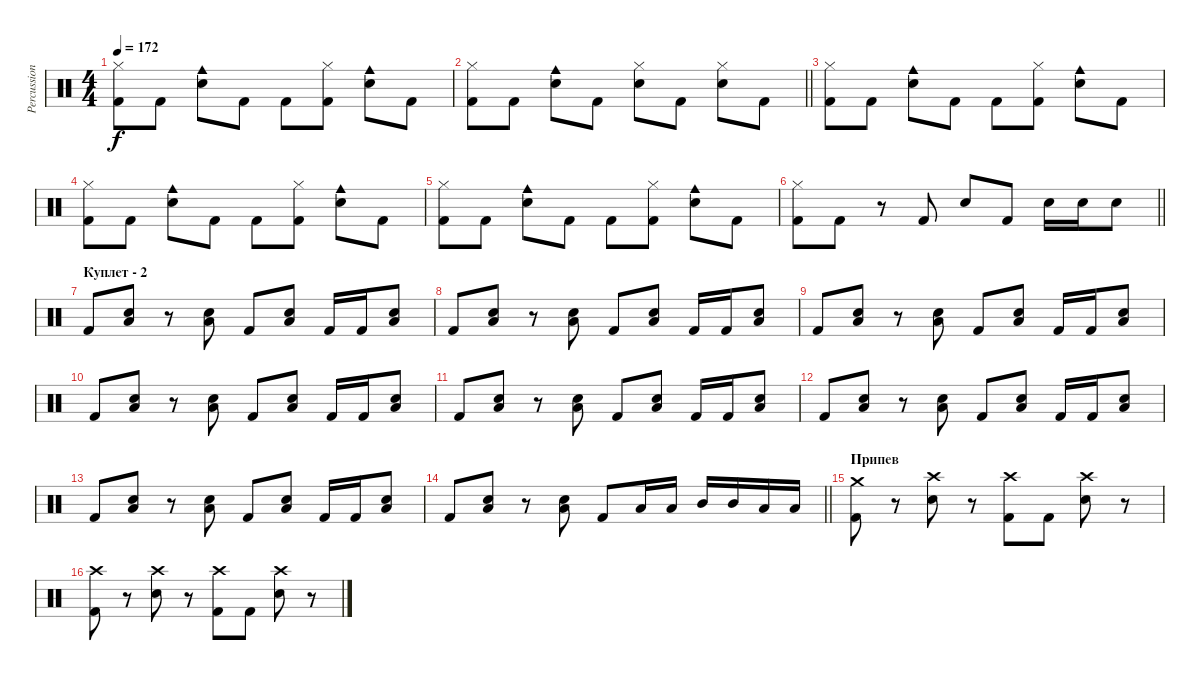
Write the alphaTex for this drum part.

\track ("Percussion" "Percussion") {instrument percussion}
\staff {score}
\articulation defaults
\ts (4 4)
\tempo 172
\clef neutral
\ks c
("Hi-Hat (closed)" "Kick (hit) 2").8{dy f} "Kick (hit) 2".8 ("Cowbell medium (hit)" "Snare (hit) 2").8 "Kick (hit) 2".8 "Kick (hit) 2".8 ("Hi-Hat (closed)" "Kick (hit) 2").8 ("Cowbell medium (hit)" "Snare (hit) 2").8 "Kick (hit) 2".8 |
\barLineRight lightlight
("Hi-Hat (closed)" "Kick (hit) 2").8 "Kick (hit) 2".8 ("Cowbell medium (hit)" "Snare (hit) 2").8 "Kick (hit) 2".8 ("Hi-Hat (closed)" "Snare (hit) 2").8 "Kick (hit) 2".8 ("Hi-Hat (closed)" "Snare (hit) 2").8 "Kick (hit) 2".8 |
("Hi-Hat (closed)" "Kick (hit) 2").8 "Kick (hit) 2".8 ("Cowbell medium (hit)" "Snare (hit) 2").8 "Kick (hit) 2".8 "Kick (hit) 2".8 ("Hi-Hat (closed)" "Kick (hit) 2").8 ("Cowbell medium (hit)" "Snare (hit) 2").8 "Kick (hit) 2".8 |
("Hi-Hat (closed)" "Kick (hit) 2").8 "Kick (hit) 2".8 ("Cowbell medium (hit)" "Snare (hit) 2").8 "Kick (hit) 2".8 "Kick (hit) 2".8 ("Hi-Hat (closed)" "Kick (hit) 2").8 ("Cowbell medium (hit)" "Snare (hit) 2").8 "Kick (hit) 2".8 |
("Hi-Hat (closed)" "Kick (hit) 2").8 "Kick (hit) 2".8 ("Cowbell medium (hit)" "Snare (hit) 2").8 "Kick (hit) 2".8 "Kick (hit) 2".8 ("Hi-Hat (closed)" "Kick (hit) 2").8 ("Cowbell medium (hit)" "Snare (hit) 2").8 "Kick (hit) 2".8 |
\barLineRight lightlight
("Hi-Hat (closed)" "Kick (hit) 2").8 "Kick (hit) 2".8 r.8 "Kick (hit) 2".8 "Snare (hit) 2".8 "Kick (hit) 2".8 "Snare (hit) 2".16 "Snare (hit) 2".16 "Snare (hit) 2".8 |
\section ("" "Куплет - 2")
"Kick (hit) 2".8 ("Low Floor Tom (hit)" "Snare (hit) 2").8 r.8 ("Low Tom (hit)" "Snare (hit) 2").8 "Kick (hit) 2".8 ("Low Floor Tom (hit)" "Snare (hit) 2").8 "Kick (hit) 2".16 "Kick (hit) 2".16 ("Low Floor Tom (hit)" "Snare (hit) 2").8 |
"Kick (hit) 2".8 ("Low Floor Tom (hit)" "Snare (hit) 2").8 r.8 ("Low Tom (hit)" "Snare (hit) 2").8 "Kick (hit) 2".8 ("Low Floor Tom (hit)" "Snare (hit) 2").8 "Kick (hit) 2".16 "Kick (hit) 2".16 ("Low Floor Tom (hit)" "Snare (hit) 2").8 |
"Kick (hit) 2".8 ("Low Floor Tom (hit)" "Snare (hit) 2").8 r.8 ("Low Tom (hit)" "Snare (hit) 2").8 "Kick (hit) 2".8 ("Low Floor Tom (hit)" "Snare (hit) 2").8 "Kick (hit) 2".16 "Kick (hit) 2".16 ("Low Floor Tom (hit)" "Snare (hit) 2").8 |
"Kick (hit) 2".8 ("Low Floor Tom (hit)" "Snare (hit) 2").8 r.8 ("Low Tom (hit)" "Snare (hit) 2").8 "Kick (hit) 2".8 ("Low Floor Tom (hit)" "Snare (hit) 2").8 "Kick (hit) 2".16 "Kick (hit) 2".16 ("Low Floor Tom (hit)" "Snare (hit) 2").8 |
"Kick (hit) 2".8 ("Low Floor Tom (hit)" "Snare (hit) 2").8 r.8 ("Low Tom (hit)" "Snare (hit) 2").8 "Kick (hit) 2".8 ("Low Floor Tom (hit)" "Snare (hit) 2").8 "Kick (hit) 2".16 "Kick (hit) 2".16 ("Low Floor Tom (hit)" "Snare (hit) 2").8 |
"Kick (hit) 2".8 ("Low Floor Tom (hit)" "Snare (hit) 2").8 r.8 ("Low Tom (hit)" "Snare (hit) 2").8 "Kick (hit) 2".8 ("Low Floor Tom (hit)" "Snare (hit) 2").8 "Kick (hit) 2".16 "Kick (hit) 2".16 ("Low Floor Tom (hit)" "Snare (hit) 2").8 |
"Kick (hit) 2".8 ("Low Floor Tom (hit)" "Snare (hit) 2").8 r.8 ("Low Tom (hit)" "Snare (hit) 2").8 "Kick (hit) 2".8 ("Low Floor Tom (hit)" "Snare (hit) 2").8 "Kick (hit) 2".16 "Kick (hit) 2".16 ("Low Floor Tom (hit)" "Snare (hit) 2").8 |
\barLineRight lightlight "Kick (hit) 2".8
("Low Floor Tom (hit)" "Snare (hit) 2").8 r.8 ("Low Tom (hit)" "Snare (hit) 2").8 "Kick (hit) 2".8 "Low Tom (hit)".16 "Low Tom (hit)".16 "Mid Tom (hit)".16 "Mid Tom (hit)".16 "Low Floor Tom (hit)".16 "Low Floor Tom (hit)".16 |
\section ("" "Припев")
("Crash medium (hit)" "Kick (hit) 2").8 r.8 ("Crash high (hit)" "Snare (hit) 2").8 r.8 ("Crash high (hit)" "Kick (hit) 2").8 "Kick (hit) 2".8 ("Crash high (hit)" "Snare (hit) 2").8 r.8 |
("Crash high (hit)" "Kick (hit) 2").8 r.8 ("Crash high (hit)" "Snare (hit) 2").8 r.8 ("Crash high (hit)" "Kick (hit) 2").8 "Kick (hit) 2".8 ("Crash high (hit)" "Snare (hit) 2").8 r.8
